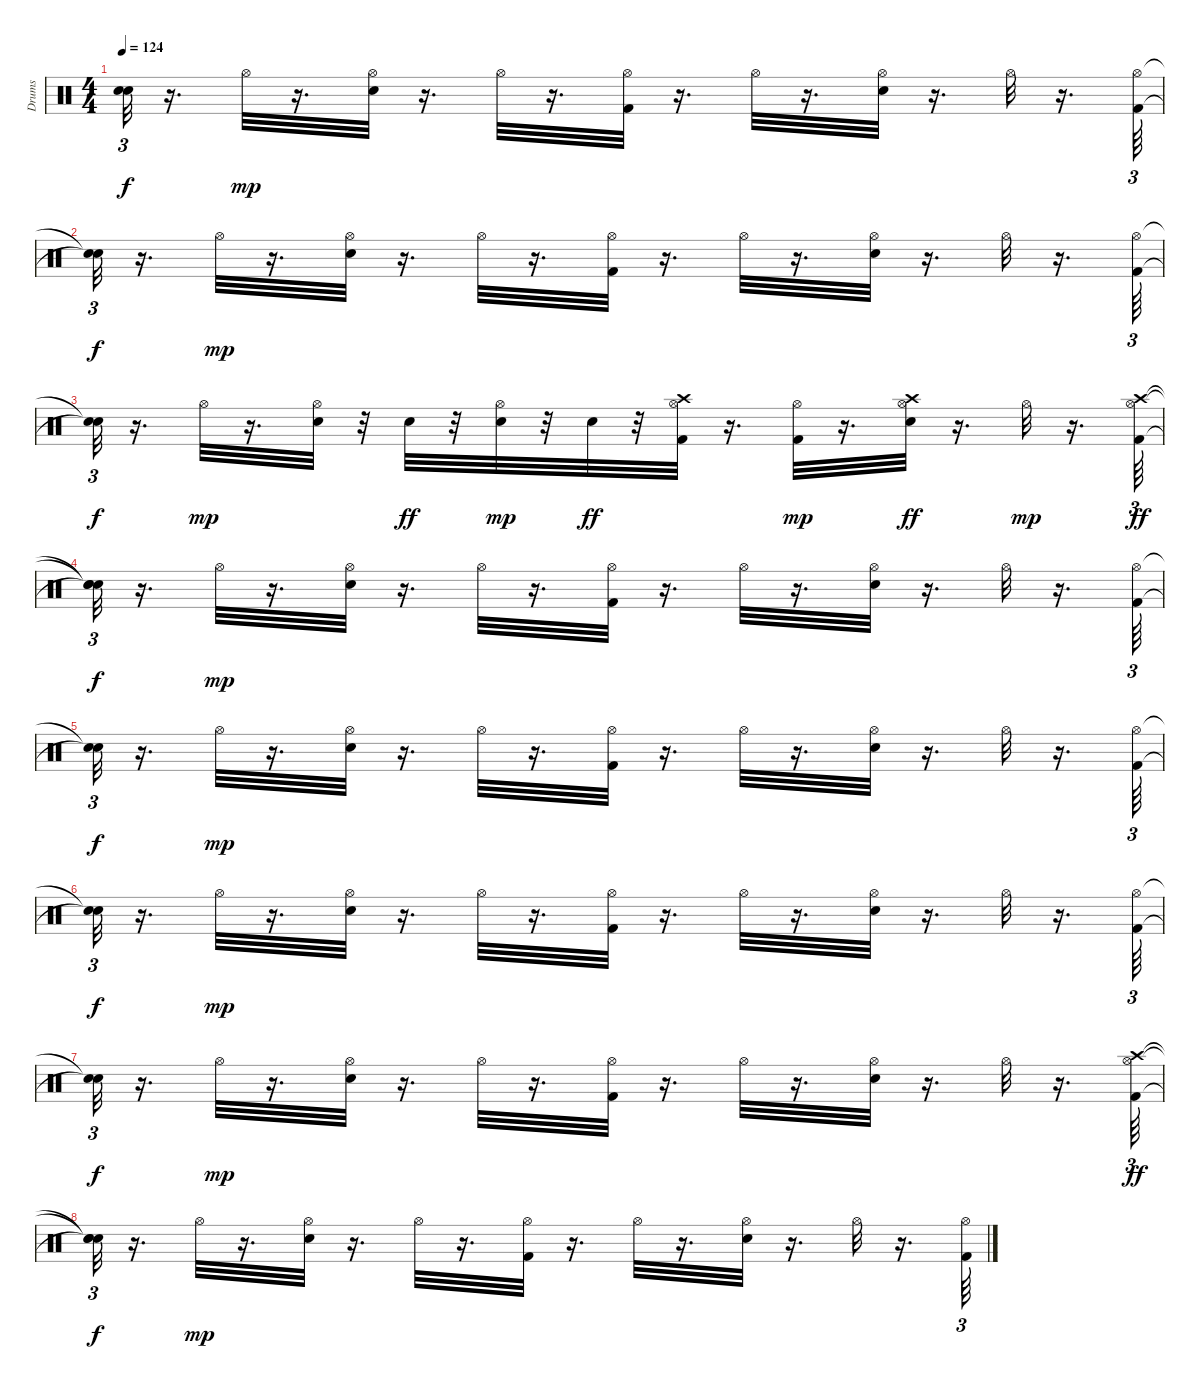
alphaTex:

\track ("Drums" "Drums") {instrument percussion}
\staff {score}
\articulation defaults
\ts (4 4)
\tempo 124
\clef neutral
\ks c
("Snare (hit)"{t} "Snare (hit)"{t}).32{tu (3 2) dy f} r.16{d} "Hi-Hat (open)".32{dy mp} r.16{d} ("Snare (hit) 2" "Hi-Hat (open)").32 r.16{d} "Hi-Hat (open)".32 r.16{d} ("Kick (hit) 2" "Hi-Hat (open)").32 r.16{d} "Hi-Hat (open)".32 r.16{d} ("Snare (hit) 2" "Hi-Hat (open)").32 r.16{d} "Hi-Hat (open)".32 r.16{d} ("Kick (hit) 2" "Hi-Hat (open)").64{tu (3 2)} |
("Snare (hit)"{t} "Snare (hit)"{t}).32{tu (3 2) dy f} r.16{d} "Hi-Hat (open)".32{dy mp} r.16{d} ("Snare (hit) 2" "Hi-Hat (open)").32 r.16{d} "Hi-Hat (open)".32 r.16{d} ("Kick (hit) 2" "Hi-Hat (open)").32 r.16{d} "Hi-Hat (open)".32 r.16{d} ("Snare (hit) 2" "Hi-Hat (open)").32 r.16{d} "Hi-Hat (open)".32 r.16{d} ("Kick (hit) 2" "Hi-Hat (open)").64{tu (3 2)} |
("Snare (hit)"{t} "Snare (hit)"{t}).32{tu (3 2) dy f} r.16{d} "Hi-Hat (open)".32{dy mp} r.16{d} ("Snare (hit) 2" "Hi-Hat (open)").32 r.32 "Snare (hit) 2".32{dy ff} r.32 ("Snare (hit) 2" "Hi-Hat (open)").32{dy mp} r.32 "Snare (hit) 2".32{dy ff} r.32 ("Kick (hit) 2" "Hi-Hat (open)" "Crash high (hit)").32 r.16{d} ("Kick (hit) 2" "Hi-Hat (open)").32{dy mp} r.16{d} ("Snare (hit) 2" "Hi-Hat (open)" "Crash high (hit)").32{dy ff} r.16{d} "Hi-Hat (open)".32{dy mp} r.16{d} ("Kick (hit) 2" "Hi-Hat (open)" "Crash high (hit)").64{tu (3 2) dy ff} |
("Snare (hit)"{t} "Snare (hit)"{t} "Snare (hit)"{t}).32{tu (3 2) dy f} r.16{d} "Hi-Hat (open)".32{dy mp} r.16{d} ("Snare (hit) 2" "Hi-Hat (open)").32 r.16{d} "Hi-Hat (open)".32 r.16{d} ("Kick (hit) 2" "Hi-Hat (open)").32 r.16{d} "Hi-Hat (open)".32 r.16{d} ("Snare (hit) 2" "Hi-Hat (open)").32 r.16{d} "Hi-Hat (open)".32 r.16{d} ("Kick (hit) 2" "Hi-Hat (open)").64{tu (3 2)} |
("Snare (hit)"{t} "Snare (hit)"{t}).32{tu (3 2) dy f} r.16{d} "Hi-Hat (open)".32{dy mp} r.16{d} ("Snare (hit) 2" "Hi-Hat (open)").32 r.16{d} "Hi-Hat (open)".32 r.16{d} ("Kick (hit) 2" "Hi-Hat (open)").32 r.16{d} "Hi-Hat (open)".32 r.16{d} ("Snare (hit) 2" "Hi-Hat (open)").32 r.16{d} "Hi-Hat (open)".32 r.16{d} ("Kick (hit) 2" "Hi-Hat (open)").64{tu (3 2) volume 12} |
("Snare (hit)"{t} "Snare (hit)"{t}).32{tu (3 2) dy f} r.16{d} "Hi-Hat (open)".32{dy mp volume 12} r.16{d} ("Snare (hit) 2" "Hi-Hat (open)").32{volume 12} r.16{d} "Hi-Hat (open)".32{volume 11} r.16{d} ("Kick (hit) 2" "Hi-Hat (open)").32{volume 11} r.16{d} "Hi-Hat (open)".32{volume 11} r.16{d} ("Snare (hit) 2" "Hi-Hat (open)").32{volume 10} r.16{d} "Hi-Hat (open)".32{volume 10} r.16{d} ("Kick (hit) 2" "Hi-Hat (open)").64{tu (3 2) volume 10} |
("Snare (hit)"{t} "Snare (hit)"{t}).32{tu (3 2) dy f} r.16{d} "Hi-Hat (open)".32{dy mp volume 10} r.16{d} ("Snare (hit) 2" "Hi-Hat (open)").32{volume 10} r.16{d} "Hi-Hat (open)".32{volume 9} r.16{d} ("Kick (hit) 2" "Hi-Hat (open)").32{volume 9} r.16{d} "Hi-Hat (open)".32{volume 9} r.16{d} ("Snare (hit) 2" "Hi-Hat (open)").32{volume 8} r.16{d} "Hi-Hat (open)".32{volume 8} r.16{d} ("Kick (hit) 2" "Hi-Hat (open)" "Crash high (hit)").64{tu (3 2) dy ff volume 8} |
("Snare (hit)"{t} "Snare (hit)"{t} "Snare (hit)"{t}).32{tu (3 2) dy f} r.16{d} "Hi-Hat (open)".32{dy mp volume 8} r.16{d} ("Snare (hit) 2" "Hi-Hat (open)").32{volume 8} r.16{d} "Hi-Hat (open)".32{volume 7} r.16{d} ("Kick (hit) 2" "Hi-Hat (open)").32{volume 7} r.16{d} "Hi-Hat (open)".32{volume 7} r.16{d} ("Snare (hit) 2" "Hi-Hat (open)").32{volume 6} r.16{d} "Hi-Hat (open)".32{volume 6} r.16{d} ("Kick (hit) 2" "Hi-Hat (open)").64{tu (3 2) volume 6}
